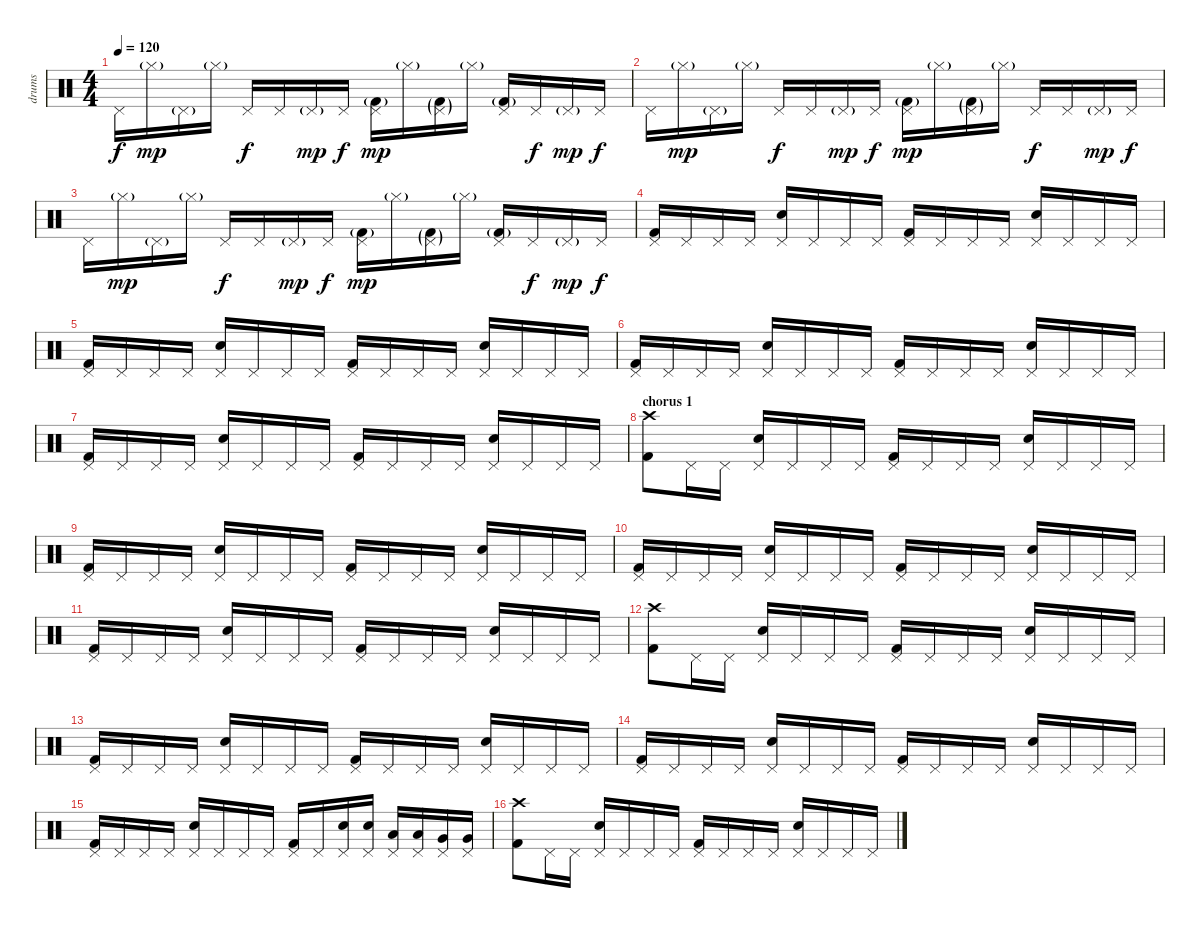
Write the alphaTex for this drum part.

\track ("drums" "drums") {instrument percussion}
\staff {score}
\articulation defaults
\ts (4 4)
\tempo 120
\clef neutral
\ks c "Pedal Hi-Hat (hit)".16{dy f} "Hi-Hat (closed)"{g}.16{dy mp} "Pedal Hi-Hat (hit)"{g}.16 "Hi-Hat (closed)"{g}.16 "Pedal Hi-Hat (hit)".16{dy f} "Pedal Hi-Hat (hit)".16 "Pedal Hi-Hat (hit)"{g}.16{dy mp} "Pedal Hi-Hat (hit)".16{dy f}
("Kick (hit) 2"{g} "Pedal Hi-Hat (hit)").16{dy mp} "Hi-Hat (closed)"{g}.16 ("Kick (hit) 2"{g} "Pedal Hi-Hat (hit)"{g}).16 "Hi-Hat (closed)"{g}.16 ("Kick (hit) 2"{g} "Pedal Hi-Hat (hit)").16 "Pedal Hi-Hat (hit)".16{dy f} "Pedal Hi-Hat (hit)"{g}.16{dy mp} "Pedal Hi-Hat (hit)".16{dy f} |
"Pedal Hi-Hat (hit)".16 "Hi-Hat (closed)"{g}.16{dy mp} "Pedal Hi-Hat (hit)"{g}.16 "Hi-Hat (closed)"{g}.16 "Pedal Hi-Hat (hit)".16{dy f} "Pedal Hi-Hat (hit)".16 "Pedal Hi-Hat (hit)"{g}.16{dy mp} "Pedal Hi-Hat (hit)".16{dy f} ("Kick (hit) 2"{g} "Pedal Hi-Hat (hit)").16{dy mp} "Hi-Hat (closed)"{g}.16 ("Kick (hit) 2"{g} "Pedal Hi-Hat (hit)"{g}).16 "Hi-Hat (closed)"{g}.16 "Pedal Hi-Hat (hit)".16{dy f} "Pedal Hi-Hat (hit)".16 "Pedal Hi-Hat (hit)"{g}.16{dy mp} "Pedal Hi-Hat (hit)".16{dy f} |
"Pedal Hi-Hat (hit)".16 "Hi-Hat (closed)"{g}.16{dy mp} "Pedal Hi-Hat (hit)"{g}.16 "Hi-Hat (closed)"{g}.16 "Pedal Hi-Hat (hit)".16{dy f} "Pedal Hi-Hat (hit)".16 "Pedal Hi-Hat (hit)"{g}.16{dy mp} "Pedal Hi-Hat (hit)".16{dy f} ("Kick (hit) 2"{g} "Pedal Hi-Hat (hit)").16{dy mp} "Hi-Hat (closed)"{g}.16 ("Kick (hit) 2"{g} "Pedal Hi-Hat (hit)"{g}).16 "Hi-Hat (closed)"{g}.16 ("Kick (hit) 2"{g} "Pedal Hi-Hat (hit)").16 "Pedal Hi-Hat (hit)".16{dy f} "Pedal Hi-Hat (hit)"{g}.16{dy mp} "Pedal Hi-Hat (hit)".16{dy f} |
("Kick (hit) 2" "Pedal Hi-Hat (hit)").16{volume 14} "Pedal Hi-Hat (hit)".16 "Pedal Hi-Hat (hit)".16 "Pedal Hi-Hat (hit)".16 ("Electric Snare (hit)" "Pedal Hi-Hat (hit)").16 "Pedal Hi-Hat (hit)".16 "Pedal Hi-Hat (hit)".16 "Pedal Hi-Hat (hit)".16 ("Kick (hit) 2" "Pedal Hi-Hat (hit)").16 "Pedal Hi-Hat (hit)".16 "Pedal Hi-Hat (hit)".16 "Pedal Hi-Hat (hit)".16 ("Electric Snare (hit)" "Pedal Hi-Hat (hit)").16 "Pedal Hi-Hat (hit)".16 "Pedal Hi-Hat (hit)".16 "Pedal Hi-Hat (hit)".16 |
("Kick (hit) 2" "Pedal Hi-Hat (hit)").16 "Pedal Hi-Hat (hit)".16 "Pedal Hi-Hat (hit)".16 "Pedal Hi-Hat (hit)".16 ("Electric Snare (hit)" "Pedal Hi-Hat (hit)").16 "Pedal Hi-Hat (hit)".16 "Pedal Hi-Hat (hit)".16 "Pedal Hi-Hat (hit)".16 ("Kick (hit) 2" "Pedal Hi-Hat (hit)").16 "Pedal Hi-Hat (hit)".16 "Pedal Hi-Hat (hit)".16 "Pedal Hi-Hat (hit)".16 ("Electric Snare (hit)" "Pedal Hi-Hat (hit)").16 "Pedal Hi-Hat (hit)".16 "Pedal Hi-Hat (hit)".16 "Pedal Hi-Hat (hit)".16 |
("Kick (hit) 2" "Pedal Hi-Hat (hit)").16 "Pedal Hi-Hat (hit)".16 "Pedal Hi-Hat (hit)".16 "Pedal Hi-Hat (hit)".16 ("Electric Snare (hit)" "Pedal Hi-Hat (hit)").16 "Pedal Hi-Hat (hit)".16 "Pedal Hi-Hat (hit)".16 "Pedal Hi-Hat (hit)".16 ("Kick (hit) 2" "Pedal Hi-Hat (hit)").16 "Pedal Hi-Hat (hit)".16 "Pedal Hi-Hat (hit)".16 "Pedal Hi-Hat (hit)".16 ("Electric Snare (hit)" "Pedal Hi-Hat (hit)").16 "Pedal Hi-Hat (hit)".16 "Pedal Hi-Hat (hit)".16 "Pedal Hi-Hat (hit)".16 |
("Kick (hit) 2" "Pedal Hi-Hat (hit)").16 "Pedal Hi-Hat (hit)".16 "Pedal Hi-Hat (hit)".16 "Pedal Hi-Hat (hit)".16 ("Electric Snare (hit)" "Pedal Hi-Hat (hit)").16 "Pedal Hi-Hat (hit)".16 "Pedal Hi-Hat (hit)".16 "Pedal Hi-Hat (hit)".16 ("Kick (hit) 2" "Pedal Hi-Hat (hit)").16 "Pedal Hi-Hat (hit)".16 "Pedal Hi-Hat (hit)".16 "Pedal Hi-Hat (hit)".16 ("Electric Snare (hit)" "Pedal Hi-Hat (hit)").16 "Pedal Hi-Hat (hit)".16 "Pedal Hi-Hat (hit)".16 "Pedal Hi-Hat (hit)".16 |
\section ("" "chorus 1")
("Kick (hit) 2" "Crash high (hit)").8 "Pedal Hi-Hat (hit)".16 "Pedal Hi-Hat (hit)".16 ("Electric Snare (hit)" "Pedal Hi-Hat (hit)").16 "Pedal Hi-Hat (hit)".16 "Pedal Hi-Hat (hit)".16 "Pedal Hi-Hat (hit)".16 ("Kick (hit) 2" "Pedal Hi-Hat (hit)").16 "Pedal Hi-Hat (hit)".16 "Pedal Hi-Hat (hit)".16 "Pedal Hi-Hat (hit)".16 ("Electric Snare (hit)" "Pedal Hi-Hat (hit)").16 "Pedal Hi-Hat (hit)".16 "Pedal Hi-Hat (hit)".16 "Pedal Hi-Hat (hit)".16 |
("Kick (hit) 2" "Pedal Hi-Hat (hit)").16 "Pedal Hi-Hat (hit)".16 "Pedal Hi-Hat (hit)".16 "Pedal Hi-Hat (hit)".16 ("Electric Snare (hit)" "Pedal Hi-Hat (hit)").16 "Pedal Hi-Hat (hit)".16 "Pedal Hi-Hat (hit)".16 "Pedal Hi-Hat (hit)".16 ("Kick (hit) 2" "Pedal Hi-Hat (hit)").16 "Pedal Hi-Hat (hit)".16 "Pedal Hi-Hat (hit)".16 "Pedal Hi-Hat (hit)".16 ("Electric Snare (hit)" "Pedal Hi-Hat (hit)").16 "Pedal Hi-Hat (hit)".16 "Pedal Hi-Hat (hit)".16 "Pedal Hi-Hat (hit)".16 |
("Kick (hit) 2" "Pedal Hi-Hat (hit)").16 "Pedal Hi-Hat (hit)".16 "Pedal Hi-Hat (hit)".16 "Pedal Hi-Hat (hit)".16 ("Electric Snare (hit)" "Pedal Hi-Hat (hit)").16 "Pedal Hi-Hat (hit)".16 "Pedal Hi-Hat (hit)".16 "Pedal Hi-Hat (hit)".16 ("Kick (hit) 2" "Pedal Hi-Hat (hit)").16 "Pedal Hi-Hat (hit)".16 "Pedal Hi-Hat (hit)".16 "Pedal Hi-Hat (hit)".16 ("Electric Snare (hit)" "Pedal Hi-Hat (hit)").16 "Pedal Hi-Hat (hit)".16 "Pedal Hi-Hat (hit)".16 "Pedal Hi-Hat (hit)".16 |
("Kick (hit) 2" "Pedal Hi-Hat (hit)").16 "Pedal Hi-Hat (hit)".16 "Pedal Hi-Hat (hit)".16 "Pedal Hi-Hat (hit)".16 ("Electric Snare (hit)" "Pedal Hi-Hat (hit)").16 "Pedal Hi-Hat (hit)".16 "Pedal Hi-Hat (hit)".16 "Pedal Hi-Hat (hit)".16 ("Kick (hit) 2" "Pedal Hi-Hat (hit)").16 "Pedal Hi-Hat (hit)".16 "Pedal Hi-Hat (hit)".16 "Pedal Hi-Hat (hit)".16 ("Electric Snare (hit)" "Pedal Hi-Hat (hit)").16 "Pedal Hi-Hat (hit)".16 "Pedal Hi-Hat (hit)".16 "Pedal Hi-Hat (hit)".16 |
("Kick (hit) 2" "Crash high (hit)").8 "Pedal Hi-Hat (hit)".16 "Pedal Hi-Hat (hit)".16 ("Electric Snare (hit)" "Pedal Hi-Hat (hit)").16 "Pedal Hi-Hat (hit)".16 "Pedal Hi-Hat (hit)".16 "Pedal Hi-Hat (hit)".16 ("Kick (hit) 2" "Pedal Hi-Hat (hit)").16 "Pedal Hi-Hat (hit)".16 "Pedal Hi-Hat (hit)".16 "Pedal Hi-Hat (hit)".16 ("Electric Snare (hit)" "Pedal Hi-Hat (hit)").16 "Pedal Hi-Hat (hit)".16 "Pedal Hi-Hat (hit)".16 "Pedal Hi-Hat (hit)".16 |
("Kick (hit) 2" "Pedal Hi-Hat (hit)").16 "Pedal Hi-Hat (hit)".16 "Pedal Hi-Hat (hit)".16 "Pedal Hi-Hat (hit)".16 ("Electric Snare (hit)" "Pedal Hi-Hat (hit)").16 "Pedal Hi-Hat (hit)".16 "Pedal Hi-Hat (hit)".16 "Pedal Hi-Hat (hit)".16 ("Kick (hit) 2" "Pedal Hi-Hat (hit)").16 "Pedal Hi-Hat (hit)".16 "Pedal Hi-Hat (hit)".16 "Pedal Hi-Hat (hit)".16 ("Electric Snare (hit)" "Pedal Hi-Hat (hit)").16 "Pedal Hi-Hat (hit)".16 "Pedal Hi-Hat (hit)".16 "Pedal Hi-Hat (hit)".16 |
("Kick (hit) 2" "Pedal Hi-Hat (hit)").16 "Pedal Hi-Hat (hit)".16 "Pedal Hi-Hat (hit)".16 "Pedal Hi-Hat (hit)".16 ("Electric Snare (hit)" "Pedal Hi-Hat (hit)").16 "Pedal Hi-Hat (hit)".16 "Pedal Hi-Hat (hit)".16 "Pedal Hi-Hat (hit)".16 ("Kick (hit) 2" "Pedal Hi-Hat (hit)").16 "Pedal Hi-Hat (hit)".16 "Pedal Hi-Hat (hit)".16 "Pedal Hi-Hat (hit)".16 ("Electric Snare (hit)" "Pedal Hi-Hat (hit)").16 "Pedal Hi-Hat (hit)".16 "Pedal Hi-Hat (hit)".16 "Pedal Hi-Hat (hit)".16 |
("Kick (hit) 2" "Pedal Hi-Hat (hit)").16 "Pedal Hi-Hat (hit)".16 "Pedal Hi-Hat (hit)".16 "Pedal Hi-Hat (hit)".16 ("Electric Snare (hit)" "Pedal Hi-Hat (hit)").16 "Pedal Hi-Hat (hit)".16 "Pedal Hi-Hat (hit)".16 "Pedal Hi-Hat (hit)".16 ("Kick (hit) 2" "Pedal Hi-Hat (hit)").16 "Pedal Hi-Hat (hit)".16 ("Electric Snare (hit)" "Pedal Hi-Hat (hit)").16 ("Electric Snare (hit)" "Pedal Hi-Hat (hit)").16 ("Low Tom (hit)" "Pedal Hi-Hat (hit)").16 ("Low Tom (hit)" "Pedal Hi-Hat (hit)").16 ("Very Low Tom (hit)" "Pedal Hi-Hat (hit)").16 ("Very Low Tom (hit)" "Pedal Hi-Hat (hit)").16 |
("Kick (hit) 2" "Crash high (hit)").8 "Pedal Hi-Hat (hit)".16 "Pedal Hi-Hat (hit)".16 ("Electric Snare (hit)" "Pedal Hi-Hat (hit)").16 "Pedal Hi-Hat (hit)".16 "Pedal Hi-Hat (hit)".16 "Pedal Hi-Hat (hit)".16 ("Kick (hit) 2" "Pedal Hi-Hat (hit)").16 "Pedal Hi-Hat (hit)".16 "Pedal Hi-Hat (hit)".16 "Pedal Hi-Hat (hit)".16 ("Electric Snare (hit)" "Pedal Hi-Hat (hit)").16 "Pedal Hi-Hat (hit)".16 "Pedal Hi-Hat (hit)".16 "Pedal Hi-Hat (hit)".16
